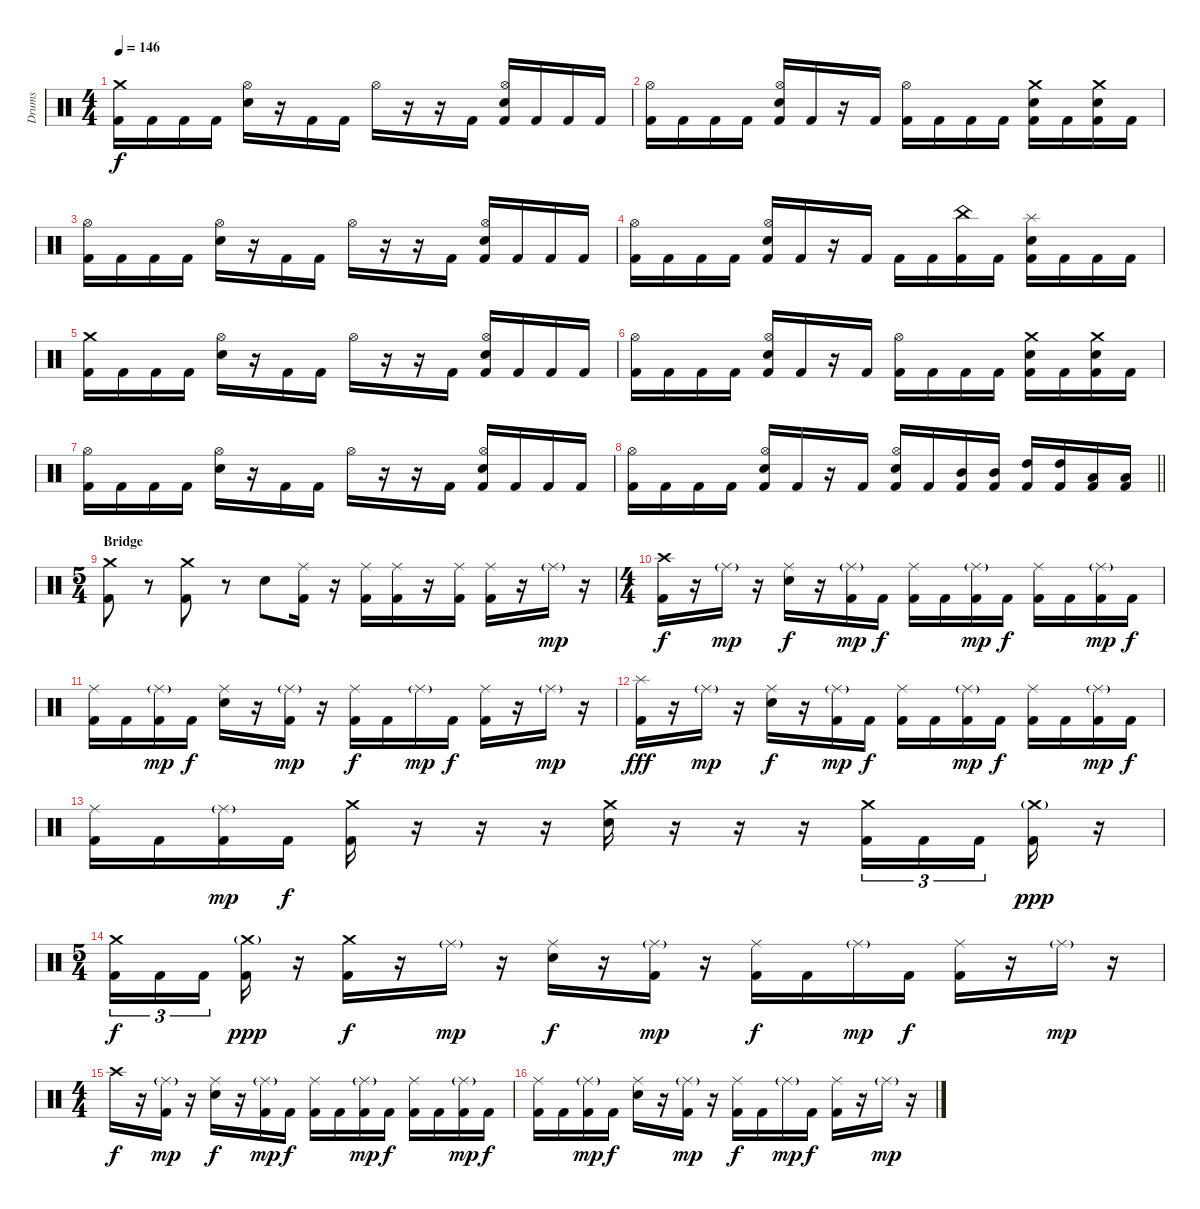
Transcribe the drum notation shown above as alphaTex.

\track ("Drums" "Drums") {instrument percussion}
\staff {score}
\articulation defaults
\ts (4 4)
\tempo 146
\clef neutral
\ks c
("Crash medium (hit)" "Kick (hit) 2").16{dy f} "Kick (hit) 2".16 "Kick (hit) 2".16 "Kick (hit) 2".16 ("Hi-Hat (open)" "Electric Snare (hit)").16 r.16 "Kick (hit) 2".16 "Kick (hit) 2".16 "Hi-Hat (open)".16 r.16 r.16 "Kick (hit) 2".16 ("Hi-Hat (open)" "Electric Snare (hit)" "Kick (hit) 2").16 "Kick (hit) 2".16 "Kick (hit) 2".16 "Kick (hit) 2".16 |
("Hi-Hat (open)" "Kick (hit) 2").16 "Kick (hit) 2".16 "Kick (hit) 2".16 "Kick (hit) 2".16 ("Hi-Hat (open)" "Electric Snare (hit)" "Kick (hit) 2").16 "Kick (hit) 2".16 r.16 "Kick (hit) 2".16 ("Hi-Hat (open)" "Kick (hit) 2").16 "Kick (hit) 2".16 "Kick (hit) 2".16 "Kick (hit) 2".16 ("Crash medium (hit)" "Electric Snare (hit)" "Kick (hit) 2").16 "Kick (hit) 2".16 ("Crash medium (hit)" "Electric Snare (hit)" "Kick (hit) 2").16 "Kick (hit) 2".16 |
("Hi-Hat (open)" "Kick (hit) 2").16 "Kick (hit) 2".16 "Kick (hit) 2".16 "Kick (hit) 2".16 ("Hi-Hat (open)" "Electric Snare (hit)").16 r.16 "Kick (hit) 2".16 "Kick (hit) 2".16 "Hi-Hat (open)".16 r.16 r.16 "Kick (hit) 2".16 ("Hi-Hat (open)" "Electric Snare (hit)" "Kick (hit) 2").16 "Kick (hit) 2".16 "Kick (hit) 2".16 "Kick (hit) 2".16 |
("Hi-Hat (open)" "Kick (hit) 2").16 "Kick (hit) 2".16 "Kick (hit) 2".16 "Kick (hit) 2".16 ("Hi-Hat (open)" "Electric Snare (hit)" "Kick (hit) 2").16 "Kick (hit) 2".16 r.16 "Kick (hit) 2".16 "Kick (hit) 2".16 "Kick (hit) 2".16 ("China (hit)" "Kick (hit) 2").16 "Kick (hit) 2".16 ("Splash (hit)" "Electric Snare (hit)" "Kick (hit) 2").16 "Kick (hit) 2".16 "Kick (hit) 2".16 "Kick (hit) 2".16 |
("Crash medium (hit)" "Kick (hit) 2").16 "Kick (hit) 2".16 "Kick (hit) 2".16 "Kick (hit) 2".16 ("Hi-Hat (open)" "Electric Snare (hit)").16 r.16 "Kick (hit) 2".16 "Kick (hit) 2".16 "Hi-Hat (open)".16 r.16 r.16 "Kick (hit) 2".16 ("Hi-Hat (open)" "Electric Snare (hit)" "Kick (hit) 2").16 "Kick (hit) 2".16 "Kick (hit) 2".16 "Kick (hit) 2".16 |
("Hi-Hat (open)" "Kick (hit) 2").16 "Kick (hit) 2".16 "Kick (hit) 2".16 "Kick (hit) 2".16 ("Hi-Hat (open)" "Electric Snare (hit)" "Kick (hit) 2").16 "Kick (hit) 2".16 r.16 "Kick (hit) 2".16 ("Hi-Hat (open)" "Kick (hit) 2").16 "Kick (hit) 2".16 "Kick (hit) 2".16 "Kick (hit) 2".16 ("Crash medium (hit)" "Electric Snare (hit)" "Kick (hit) 2").16 "Kick (hit) 2".16 ("Crash medium (hit)" "Electric Snare (hit)" "Kick (hit) 2").16 "Kick (hit) 2".16 |
("Hi-Hat (open)" "Kick (hit) 2").16 "Kick (hit) 2".16 "Kick (hit) 2".16 "Kick (hit) 2".16 ("Hi-Hat (open)" "Electric Snare (hit)").16 r.16 "Kick (hit) 2".16 "Kick (hit) 2".16 "Hi-Hat (open)".16 r.16 r.16 "Kick (hit) 2".16 ("Hi-Hat (open)" "Electric Snare (hit)" "Kick (hit) 2").16 "Kick (hit) 2".16 "Kick (hit) 2".16 "Kick (hit) 2".16 |
\barLineRight lightlight
("Hi-Hat (open)" "Kick (hit) 2").16 "Kick (hit) 2".16 "Kick (hit) 2".16 "Kick (hit) 2".16 ("Hi-Hat (open)" "Electric Snare (hit)" "Kick (hit) 2").16 "Kick (hit) 2".16 r.16 "Kick (hit) 2".16 ("Hi-Hat (open)" "Electric Snare (hit)" "Kick (hit) 2").16 "Kick (hit) 2".16 ("Mid Tom (hit)" "Kick (hit) 2").16 ("Mid Tom (hit)" "Kick (hit) 2").16 ("High Tom (hit)" "Kick (hit) 2").16 ("High Tom (hit)" "Kick (hit) 2").16 ("Low Tom (hit)" "Kick (hit) 2").16 ("Low Tom (hit)" "Kick (hit) 2").16 |
\ts (5 4)
\section ("" "Bridge")
("Crash medium (hit)" "Kick (hit) 2").8 r.8 ("Crash medium (hit)" "Kick (hit) 2").8 r.8 "Electric Snare (hit)".8 ("Ride (middle)" "Kick (hit) 2").16 r.16 ("Ride (middle)" "Kick (hit) 2").16 ("Ride (middle)" "Kick (hit) 2").16 r.16 ("Ride (middle)" "Kick (hit) 2").16 ("Ride (middle)" "Kick (hit) 2").16 r.16 "Ride (middle)"{g}.16{dy mp} r.16 |
\ts (4 4)
("Crash high (hit)" "Kick (hit) 2").16{dy f} r.16 "Ride (middle)"{g}.16{dy mp} r.16 ("Ride (middle)" "Electric Snare (hit)").16{dy f} r.16 ("Ride (middle)"{g} "Kick (hit) 2").16{dy mp} "Kick (hit) 2".16{dy f} ("Ride (middle)" "Kick (hit) 2").16 "Kick (hit) 2".16 ("Ride (middle)"{g} "Kick (hit) 2").16{dy mp} "Kick (hit) 2".16{dy f} ("Ride (middle)" "Kick (hit) 2").16 "Kick (hit) 2".16 ("Ride (middle)"{g} "Kick (hit) 2").16{dy mp} "Kick (hit) 2".16{dy f} |
("Ride (middle)" "Kick (hit) 2").16 "Kick (hit) 2".16 ("Ride (middle)"{g} "Kick (hit) 2").16{dy mp} "Kick (hit) 2".16{dy f} ("Ride (middle)" "Electric Snare (hit)").16 r.16 ("Ride (middle)"{g} "Kick (hit) 2").16{dy mp} r.16 ("Ride (middle)" "Kick (hit) 2").16{dy f} "Kick (hit) 2".16 "Ride (middle)"{g}.16{dy mp} "Kick (hit) 2".16{dy f} ("Ride (middle)" "Kick (hit) 2").16 r.16 "Ride (middle)"{g}.16{dy mp} r.16 |
("Splash (hit)" "Kick (hit) 2").16{dy fff} r.16 "Ride (middle)"{g}.16{dy mp} r.16 ("Ride (middle)" "Electric Snare (hit)").16{dy f} r.16 ("Ride (middle)"{g} "Kick (hit) 2").16{dy mp} "Kick (hit) 2".16{dy f} ("Ride (middle)" "Kick (hit) 2").16 "Kick (hit) 2".16 ("Ride (middle)"{g} "Kick (hit) 2").16{dy mp} "Kick (hit) 2".16{dy f} ("Ride (middle)" "Kick (hit) 2").16 "Kick (hit) 2".16 ("Ride (middle)"{g} "Kick (hit) 2").16{dy mp} "Kick (hit) 2".16{dy f} |
("Ride (middle)" "Kick (hit) 2").16 "Kick (hit) 2".16 ("Ride (middle)"{g} "Kick (hit) 2").16{dy mp} "Kick (hit) 2".16{dy f} ("Crash medium (hit)" "Kick (hit) 2").16 r.16 r.16 r.16 ("Crash medium (hit)" "Electric Snare (hit)").16 r.16 r.16 r.16 ("Crash medium (hit)" "Kick (hit) 2").16{tu (3 2)} "Kick (hit) 2".16{tu (3 2)} "Kick (hit) 2".16{tu (3 2) beam splitsecondary} ("Crash medium (hit)"{g} "Kick (hit) 2").16{dy ppp} r.16 |
\ts (5 4)
("Crash medium (hit)" "Kick (hit) 2").16{tu (3 2) dy f} "Kick (hit) 2".16{tu (3 2)} "Kick (hit) 2".16{tu (3 2) beam splitsecondary} ("Crash medium (hit)"{g} "Kick (hit) 2").16{dy ppp} r.16 ("Crash medium (hit)" "Kick (hit) 2").16{dy f} r.16 "Ride (middle)"{g}.16{dy mp} r.16 ("Ride (middle)" "Electric Snare (hit)").16{dy f} r.16 ("Ride (middle)"{g} "Kick (hit) 2").16{dy mp} r.16 ("Ride (middle)" "Kick (hit) 2").16{dy f} "Kick (hit) 2".16 "Ride (middle)"{g}.16{dy mp} "Kick (hit) 2".16{dy f} ("Ride (middle)" "Kick (hit) 2").16 r.16 "Ride (middle)"{g}.16{dy mp} r.16 |
\ts (4 4)
"Crash high (hit)".16{dy f} r.16 ("Ride (middle)"{g} "Kick (hit) 2").16{dy mp} r.16 ("Ride (middle)" "Electric Snare (hit)").16{dy f} r.16 ("Ride (middle)"{g} "Kick (hit) 2").16{dy mp} "Kick (hit) 2".16{dy f} ("Ride (middle)" "Kick (hit) 2").16 "Kick (hit) 2".16 ("Ride (middle)"{g} "Kick (hit) 2").16{dy mp} "Kick (hit) 2".16{dy f} ("Ride (middle)" "Kick (hit) 2").16 "Kick (hit) 2".16 ("Ride (middle)"{g} "Kick (hit) 2").16{dy mp} "Kick (hit) 2".16{dy f} |
("Ride (middle)" "Kick (hit) 2").16 "Kick (hit) 2".16 ("Ride (middle)"{g} "Kick (hit) 2").16{dy mp} "Kick (hit) 2".16{dy f} ("Ride (middle)" "Electric Snare (hit)").16 r.16 ("Ride (middle)"{g} "Kick (hit) 2").16{dy mp} r.16 ("Ride (middle)" "Kick (hit) 2").16{dy f} "Kick (hit) 2".16 "Ride (middle)"{g}.16{dy mp} "Kick (hit) 2".16{dy f} ("Ride (middle)" "Kick (hit) 2").16 r.16 "Ride (middle)"{g}.16{dy mp} r.16
